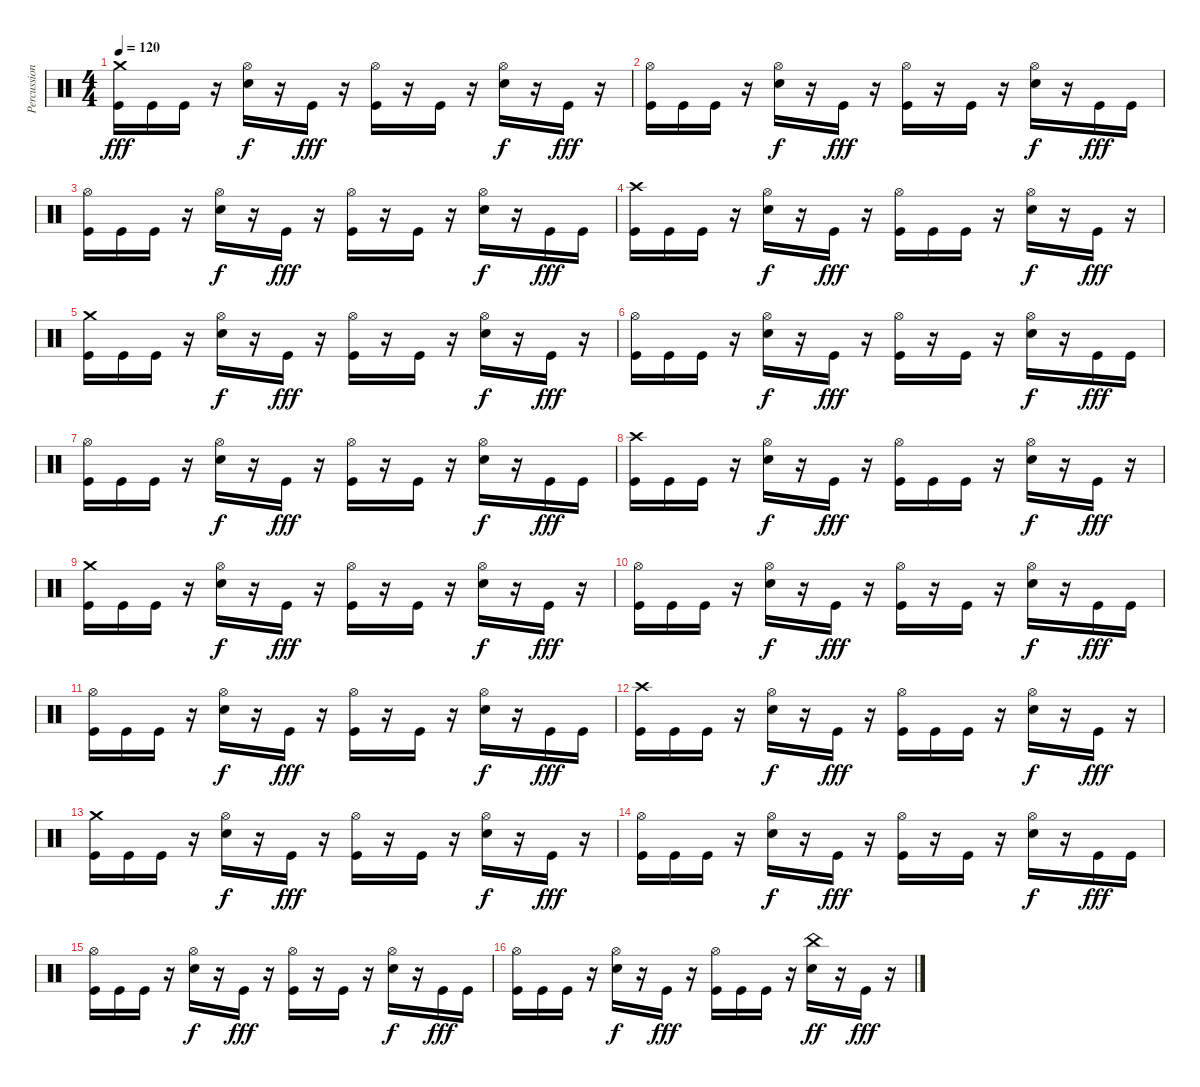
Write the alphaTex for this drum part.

\track ("Percussion" "Percussion") {instrument percussion}
\staff {score}
\articulation defaults
\ts (4 4)
\tempo 120
\clef neutral
\ks c
("Crash medium (hit)" "Kick (hit)").16{dy fff} "Kick (hit)".16 "Kick (hit)".16 r.16 ("Hi-Hat (open)" "Snare (hit) 2").16{dy f} r.16 "Kick (hit)".16{dy fff} r.16 ("Hi-Hat (open)" "Kick (hit)").16 r.16 "Kick (hit)".16 r.16 ("Hi-Hat (open)" "Snare (hit) 2").16{dy f} r.16 "Kick (hit)".16{dy fff} r.16 |
("Hi-Hat (open)" "Kick (hit)").16 "Kick (hit)".16 "Kick (hit)".16 r.16 ("Hi-Hat (open)" "Snare (hit) 2").16{dy f} r.16 "Kick (hit)".16{dy fff} r.16 ("Hi-Hat (open)" "Kick (hit)").16 r.16 "Kick (hit)".16 r.16 ("Hi-Hat (open)" "Snare (hit) 2").16{dy f} r.16 "Kick (hit)".16{dy fff} "Kick (hit)".16 |
("Hi-Hat (open)" "Kick (hit)").16 "Kick (hit)".16 "Kick (hit)".16 r.16 ("Hi-Hat (open)" "Snare (hit) 2").16{dy f} r.16 "Kick (hit)".16{dy fff} r.16 ("Hi-Hat (open)" "Kick (hit)").16 r.16 "Kick (hit)".16 r.16 ("Hi-Hat (open)" "Snare (hit) 2").16{dy f} r.16 "Kick (hit)".16{dy fff} "Kick (hit)".16 |
("Crash high (hit)" "Kick (hit)").16 "Kick (hit)".16 "Kick (hit)".16 r.16 ("Hi-Hat (open)" "Snare (hit) 2").16{dy f} r.16 "Kick (hit)".16{dy fff} r.16 ("Hi-Hat (open)" "Kick (hit)").16 "Kick (hit)".16 "Kick (hit)".16 r.16 ("Hi-Hat (open)" "Snare (hit) 2").16{dy f} r.16 "Kick (hit)".16{dy fff} r.16 |
("Crash medium (hit)" "Kick (hit)").16 "Kick (hit)".16 "Kick (hit)".16 r.16 ("Hi-Hat (open)" "Snare (hit) 2").16{dy f} r.16 "Kick (hit)".16{dy fff} r.16 ("Hi-Hat (open)" "Kick (hit)").16 r.16 "Kick (hit)".16 r.16 ("Hi-Hat (open)" "Snare (hit) 2").16{dy f} r.16 "Kick (hit)".16{dy fff} r.16 |
("Hi-Hat (open)" "Kick (hit)").16 "Kick (hit)".16 "Kick (hit)".16 r.16 ("Hi-Hat (open)" "Snare (hit) 2").16{dy f} r.16 "Kick (hit)".16{dy fff} r.16 ("Hi-Hat (open)" "Kick (hit)").16 r.16 "Kick (hit)".16 r.16 ("Hi-Hat (open)" "Snare (hit) 2").16{dy f} r.16 "Kick (hit)".16{dy fff} "Kick (hit)".16 |
("Hi-Hat (open)" "Kick (hit)").16 "Kick (hit)".16 "Kick (hit)".16 r.16 ("Hi-Hat (open)" "Snare (hit) 2").16{dy f} r.16 "Kick (hit)".16{dy fff} r.16 ("Hi-Hat (open)" "Kick (hit)").16 r.16 "Kick (hit)".16 r.16 ("Hi-Hat (open)" "Snare (hit) 2").16{dy f} r.16 "Kick (hit)".16{dy fff} "Kick (hit)".16 |
("Crash high (hit)" "Kick (hit)").16 "Kick (hit)".16 "Kick (hit)".16 r.16 ("Hi-Hat (open)" "Snare (hit) 2").16{dy f} r.16 "Kick (hit)".16{dy fff} r.16 ("Hi-Hat (open)" "Kick (hit)").16 "Kick (hit)".16 "Kick (hit)".16 r.16 ("Hi-Hat (open)" "Snare (hit) 2").16{dy f} r.16 "Kick (hit)".16{dy fff} r.16 |
("Crash medium (hit)" "Kick (hit)").16 "Kick (hit)".16 "Kick (hit)".16 r.16 ("Hi-Hat (open)" "Snare (hit) 2").16{dy f} r.16 "Kick (hit)".16{dy fff} r.16 ("Hi-Hat (open)" "Kick (hit)").16 r.16 "Kick (hit)".16 r.16 ("Hi-Hat (open)" "Snare (hit) 2").16{dy f} r.16 "Kick (hit)".16{dy fff} r.16 |
("Hi-Hat (open)" "Kick (hit)").16 "Kick (hit)".16 "Kick (hit)".16 r.16 ("Hi-Hat (open)" "Snare (hit) 2").16{dy f} r.16 "Kick (hit)".16{dy fff} r.16 ("Hi-Hat (open)" "Kick (hit)").16 r.16 "Kick (hit)".16 r.16 ("Hi-Hat (open)" "Snare (hit) 2").16{dy f} r.16 "Kick (hit)".16{dy fff} "Kick (hit)".16 |
("Hi-Hat (open)" "Kick (hit)").16 "Kick (hit)".16 "Kick (hit)".16 r.16 ("Hi-Hat (open)" "Snare (hit) 2").16{dy f} r.16 "Kick (hit)".16{dy fff} r.16 ("Hi-Hat (open)" "Kick (hit)").16 r.16 "Kick (hit)".16 r.16 ("Hi-Hat (open)" "Snare (hit) 2").16{dy f} r.16 "Kick (hit)".16{dy fff} "Kick (hit)".16 |
("Crash high (hit)" "Kick (hit)").16 "Kick (hit)".16 "Kick (hit)".16 r.16 ("Hi-Hat (open)" "Snare (hit) 2").16{dy f} r.16 "Kick (hit)".16{dy fff} r.16 ("Hi-Hat (open)" "Kick (hit)").16 "Kick (hit)".16 "Kick (hit)".16 r.16 ("Hi-Hat (open)" "Snare (hit) 2").16{dy f} r.16 "Kick (hit)".16{dy fff} r.16 |
("Crash medium (hit)" "Kick (hit)").16 "Kick (hit)".16 "Kick (hit)".16 r.16 ("Hi-Hat (open)" "Snare (hit) 2").16{dy f} r.16 "Kick (hit)".16{dy fff} r.16 ("Hi-Hat (open)" "Kick (hit)").16 r.16 "Kick (hit)".16 r.16 ("Hi-Hat (open)" "Snare (hit) 2").16{dy f} r.16 "Kick (hit)".16{dy fff} r.16 |
("Hi-Hat (open)" "Kick (hit)").16 "Kick (hit)".16 "Kick (hit)".16 r.16 ("Hi-Hat (open)" "Snare (hit) 2").16{dy f} r.16 "Kick (hit)".16{dy fff} r.16 ("Hi-Hat (open)" "Kick (hit)").16 r.16 "Kick (hit)".16 r.16 ("Hi-Hat (open)" "Snare (hit) 2").16{dy f} r.16 "Kick (hit)".16{dy fff} "Kick (hit)".16 |
("Hi-Hat (open)" "Kick (hit)").16 "Kick (hit)".16 "Kick (hit)".16 r.16 ("Hi-Hat (open)" "Snare (hit) 2").16{dy f} r.16 "Kick (hit)".16{dy fff} r.16 ("Hi-Hat (open)" "Kick (hit)").16 r.16 "Kick (hit)".16 r.16 ("Hi-Hat (open)" "Snare (hit) 2").16{dy f} r.16 "Kick (hit)".16{dy fff} "Kick (hit)".16 |
("Hi-Hat (open)" "Kick (hit)").16 "Kick (hit)".16 "Kick (hit)".16 r.16 ("Hi-Hat (open)" "Snare (hit) 2").16{dy f} r.16 "Kick (hit)".16{dy fff} r.16 ("Hi-Hat (open)" "Kick (hit)").16 "Kick (hit)".16 "Kick (hit)".16 r.16 ("China (hit)" "Snare (hit) 2").16{dy ff} r.16 "Kick (hit)".16{dy fff} r.16
